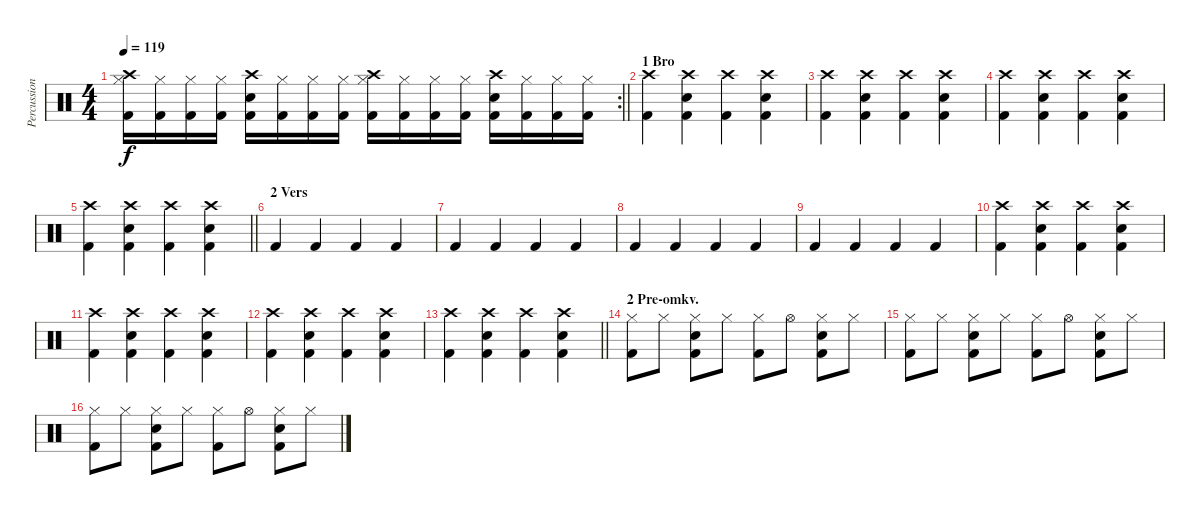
\track ("Percussion" "Percussion") {instrument percussion}
\staff {score}
\articulation defaults
\rc 2
\ts (4 4)
\tempo 119
\clef neutral
\barLineRight lightlight
\ks c
("Crash high (hit)" "Hi-Hat (closed)" "Kick (hit) 2").16{dy f} ("Hi-Hat (closed)" "Kick (hit) 2").16 ("Hi-Hat (closed)" "Kick (hit) 2").16 ("Hi-Hat (closed)" "Kick (hit) 2").16 ("Crash high (hit)" "Snare (hit) 2" "Kick (hit) 2").16 ("Hi-Hat (closed)" "Kick (hit) 2").16 ("Hi-Hat (closed)" "Kick (hit) 2").16 ("Hi-Hat (closed)" "Kick (hit) 2").16 ("Crash high (hit)" "Hi-Hat (closed)" "Kick (hit) 2").16 ("Hi-Hat (closed)" "Kick (hit) 2").16 ("Hi-Hat (closed)" "Kick (hit) 2").16 ("Hi-Hat (closed)" "Kick (hit) 2").16 ("Crash high (hit)" "Snare (hit) 2" "Kick (hit) 2").16 ("Hi-Hat (closed)" "Kick (hit) 2").16 ("Hi-Hat (closed)" "Kick (hit) 2").16 ("Hi-Hat (closed)" "Kick (hit) 2").16 |
\section ("" "1 Bro")
("Crash high (hit)" "Kick (hit) 2").4 ("Crash high (hit)" "Snare (hit) 2" "Kick (hit) 2").4 ("Crash high (hit)" "Kick (hit) 2").4 ("Crash high (hit)" "Snare (hit) 2" "Kick (hit) 2").4 |
("Crash high (hit)" "Kick (hit) 2").4 ("Crash high (hit)" "Snare (hit) 2" "Kick (hit) 2").4 ("Crash high (hit)" "Kick (hit) 2").4 ("Crash high (hit)" "Snare (hit) 2" "Kick (hit) 2").4 |
("Crash high (hit)" "Kick (hit) 2").4 ("Crash high (hit)" "Snare (hit) 2" "Kick (hit) 2").4 ("Crash high (hit)" "Kick (hit) 2").4 ("Crash high (hit)" "Snare (hit) 2" "Kick (hit) 2").4 |
\barLineRight lightlight
("Crash high (hit)" "Kick (hit) 2").4 ("Crash high (hit)" "Snare (hit) 2" "Kick (hit) 2").4 ("Crash high (hit)" "Kick (hit) 2").4 ("Crash high (hit)" "Snare (hit) 2" "Kick (hit) 2").4 |
\section ("" "2 Vers")
"Kick (hit) 2".4 "Kick (hit) 2".4 "Kick (hit) 2".4 "Kick (hit) 2".4 |
"Kick (hit) 2".4 "Kick (hit) 2".4 "Kick (hit) 2".4 "Kick (hit) 2".4 |
"Kick (hit) 2".4 "Kick (hit) 2".4 "Kick (hit) 2".4 "Kick (hit) 2".4 |
"Kick (hit) 2".4 "Kick (hit) 2".4 "Kick (hit) 2".4 "Kick (hit) 2".4 |
("Crash high (hit)" "Kick (hit) 2").4 ("Crash high (hit)" "Snare (hit) 2" "Kick (hit) 2").4 ("Crash high (hit)" "Kick (hit) 2").4 ("Crash high (hit)" "Snare (hit) 2" "Kick (hit) 2").4 |
("Crash high (hit)" "Kick (hit) 2").4 ("Crash high (hit)" "Snare (hit) 2" "Kick (hit) 2").4 ("Crash high (hit)" "Kick (hit) 2").4 ("Crash high (hit)" "Snare (hit) 2" "Kick (hit) 2").4 |
("Crash high (hit)" "Kick (hit) 2").4 ("Crash high (hit)" "Snare (hit) 2" "Kick (hit) 2").4 ("Crash high (hit)" "Kick (hit) 2").4 ("Crash high (hit)" "Snare (hit) 2" "Kick (hit) 2").4 |
\barLineRight lightlight
("Crash high (hit)" "Kick (hit) 2").4 ("Crash high (hit)" "Snare (hit) 2" "Kick (hit) 2").4 ("Crash high (hit)" "Kick (hit) 2").4 ("Crash high (hit)" "Snare (hit) 2" "Kick (hit) 2").4 |
\section ("" "2 Pre-omkv.")
("Hi-Hat (closed)" "Kick (hit) 2").8 "Hi-Hat (closed)".8 ("Hi-Hat (closed)" "Snare (hit) 2" "Kick (hit) 2").8 "Hi-Hat (closed)".8 ("Hi-Hat (closed)" "Kick (hit) 2").8 "Hi-Hat (open)".8 ("Hi-Hat (closed)" "Snare (hit) 2" "Kick (hit) 2").8 "Hi-Hat (closed)".8 |
("Hi-Hat (closed)" "Kick (hit) 2").8 "Hi-Hat (closed)".8 ("Hi-Hat (closed)" "Snare (hit) 2" "Kick (hit) 2").8 "Hi-Hat (closed)".8 ("Hi-Hat (closed)" "Kick (hit) 2").8 "Hi-Hat (open)".8 ("Hi-Hat (closed)" "Snare (hit) 2" "Kick (hit) 2").8 "Hi-Hat (closed)".8 |
("Hi-Hat (closed)" "Kick (hit) 2").8 "Hi-Hat (closed)".8 ("Hi-Hat (closed)" "Snare (hit) 2" "Kick (hit) 2").8 "Hi-Hat (closed)".8 ("Hi-Hat (closed)" "Kick (hit) 2").8 "Hi-Hat (open)".8 ("Hi-Hat (closed)" "Snare (hit) 2" "Kick (hit) 2").8 "Hi-Hat (closed)".8
